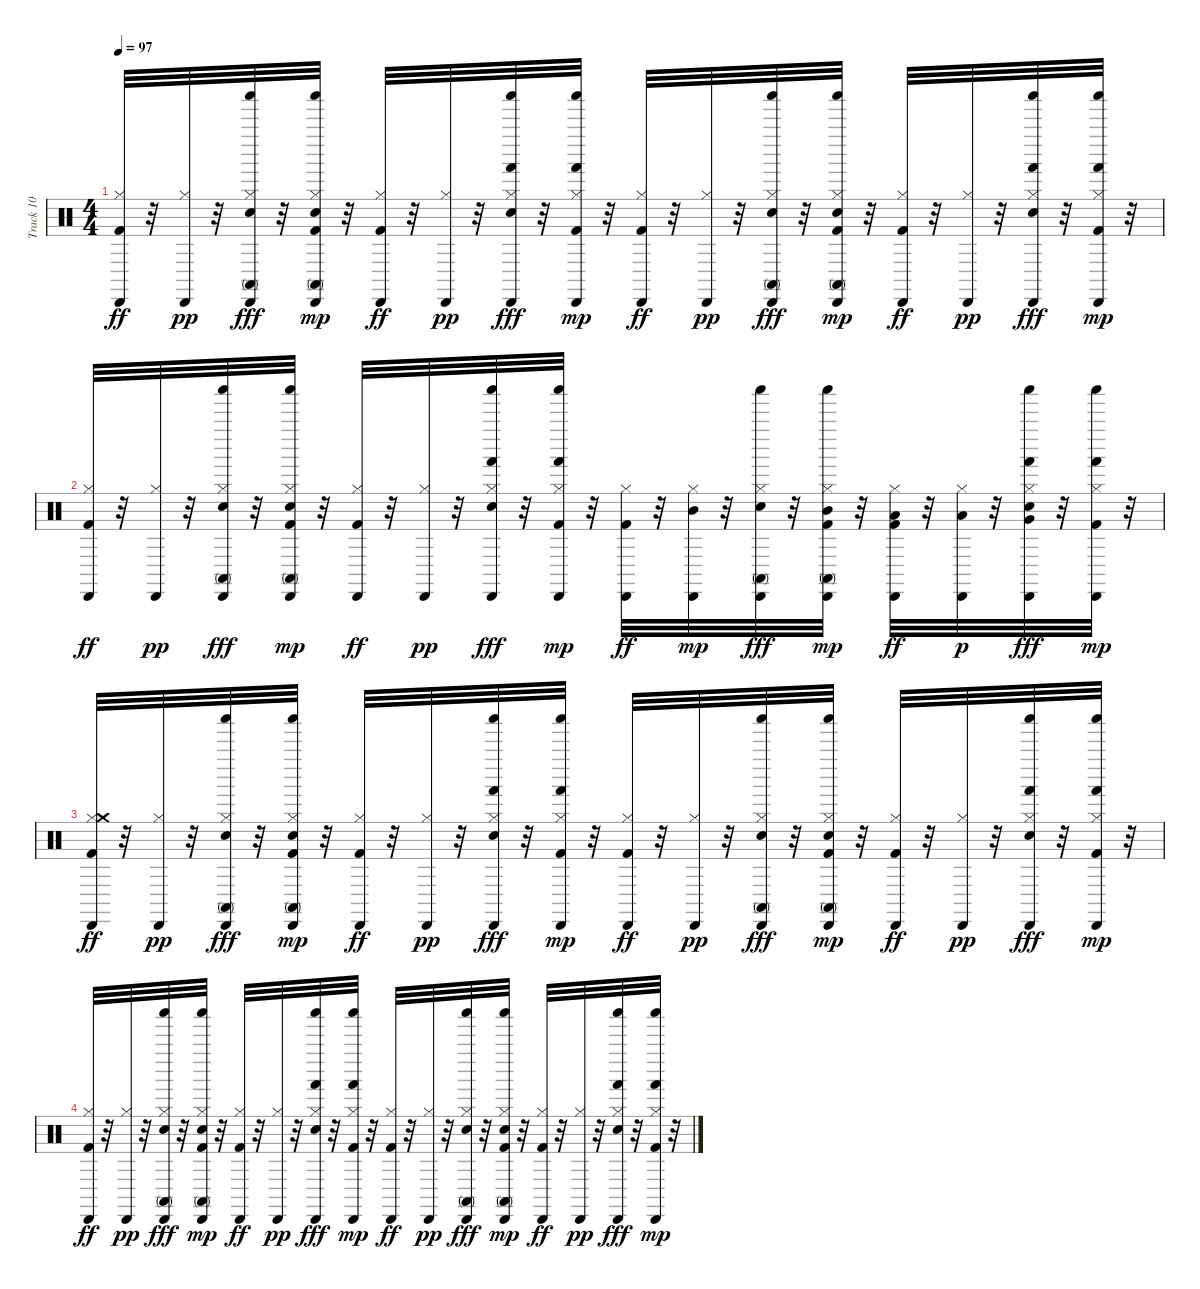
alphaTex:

\track ("Track 10" "Track 10") {instrument percussion}
\staff {score}
\articulation defaults
\ts (4 4)
\tempo 97
\clef neutral
\ks c
("Hi-Hat (closed)" "Cabasa (hit)" "Kick (hit) 2").32{dy ff} r.32 ("Hi-Hat (closed)" "Cabasa (hit)").32{dy pp} r.32 ("Hi-Hat (closed)" "Shaker (hit)" "Conga high (mute)" "Cabasa (hit)" "Snare (hit) 2").32{dy fff} r.32 ("Hi-Hat (closed)" "Shaker (hit)" "Conga high (mute)" "Cabasa (hit)" "Kick (hit) 2" "Snare (hit) 2").32{dy mp} r.32 ("Hi-Hat (closed)" "Cabasa (hit)" "Kick (hit) 2").32{dy ff} r.32 ("Hi-Hat (closed)" "Cabasa (hit)").32{dy pp} r.32 ("Hi-Hat (closed)" "Shaker (hit)" "Hand (hit)" "Cabasa (hit)" "Snare (hit) 2").32{dy fff} r.32 ("Hi-Hat (closed)" "Shaker (hit)" "Hand (hit)" "Cabasa (hit)" "Kick (hit) 2").32{dy mp} r.32 ("Hi-Hat (closed)" "Cabasa (hit)" "Kick (hit) 2").32{dy ff} r.32 ("Hi-Hat (closed)" "Cabasa (hit)").32{dy pp} r.32 ("Hi-Hat (closed)" "Shaker (hit)" "Conga high (mute)" "Cabasa (hit)" "Snare (hit) 2").32{dy fff} r.32 ("Hi-Hat (closed)" "Shaker (hit)" "Conga high (mute)" "Cabasa (hit)" "Kick (hit) 2" "Snare (hit) 2").32{dy mp} r.32 ("Hi-Hat (closed)" "Cabasa (hit)" "Kick (hit) 2").32{dy ff} r.32 ("Hi-Hat (closed)" "Cabasa (hit)").32{dy pp} r.32 ("Hi-Hat (closed)" "Shaker (hit)" "Hand (hit)" "Cabasa (hit)" "Snare (hit) 2").32{dy fff} r.32 ("Hi-Hat (closed)" "Shaker (hit)" "Hand (hit)" "Cabasa (hit)" "Kick (hit) 2").32{dy mp} r.32 |
("Hi-Hat (closed)" "Cabasa (hit)" "Kick (hit) 2").32{dy ff} r.32 ("Hi-Hat (closed)" "Cabasa (hit)").32{dy pp} r.32 ("Hi-Hat (closed)" "Shaker (hit)" "Conga high (mute)" "Cabasa (hit)" "Snare (hit) 2").32{dy fff} r.32 ("Hi-Hat (closed)" "Shaker (hit)" "Conga high (mute)" "Cabasa (hit)" "Kick (hit) 2" "Snare (hit) 2").32{dy mp} r.32 ("Hi-Hat (closed)" "Cabasa (hit)" "Kick (hit) 2").32{dy ff} r.32 ("Hi-Hat (closed)" "Cabasa (hit)").32{dy pp} r.32 ("Hi-Hat (closed)" "Shaker (hit)" "Hand (hit)" "Cabasa (hit)" "Snare (hit) 2").32{dy fff} r.32 ("Hi-Hat (closed)" "Shaker (hit)" "Hand (hit)" "Cabasa (hit)" "Kick (hit) 2").32{dy mp} r.32 ("Hi-Hat (closed)" "Cabasa (hit)" "Kick (hit) 2").32{dy ff} r.32 ("Hi-Hat (closed)" "Cabasa (hit)" "Mid Tom (hit)").32{dy mp} r.32 ("Hi-Hat (closed)" "Shaker (hit)" "Conga high (mute)" "Cabasa (hit)" "Snare (hit) 2").32{dy fff} r.32 ("Hi-Hat (closed)" "Shaker (hit)" "Conga high (mute)" "Cabasa (hit)" "Mid Tom (hit)" "Kick (hit) 2").32{dy mp} r.32 ("Hi-Hat (closed)" "Cabasa (hit)" "Low Tom (hit)" "Kick (hit) 2").32{dy ff} r.32 ("Hi-Hat (closed)" "Cabasa (hit)" "Low Tom (hit)").32{dy p} r.32 ("Hi-Hat (closed)" "Shaker (hit)" "Hand (hit)" "Cabasa (hit)" "Very Low Tom (hit)" "Snare (hit) 2").32{dy fff} r.32 ("Hi-Hat (closed)" "Shaker (hit)" "Hand (hit)" "Cabasa (hit)" "Kick (hit) 2").32{dy mp} r.32 |
("Hi-Hat (closed)" "Cabasa (hit)" "Crash medium (hit)" "Kick (hit) 2").32{dy ff} r.32 ("Hi-Hat (closed)" "Cabasa (hit)").32{dy pp} r.32 ("Hi-Hat (closed)" "Shaker (hit)" "Conga high (mute)" "Cabasa (hit)" "Snare (hit) 2").32{dy fff} r.32 ("Hi-Hat (closed)" "Shaker (hit)" "Conga high (mute)" "Cabasa (hit)" "Kick (hit) 2" "Snare (hit) 2").32{dy mp} r.32 ("Hi-Hat (closed)" "Cabasa (hit)" "Kick (hit) 2").32{dy ff} r.32 ("Hi-Hat (closed)" "Cabasa (hit)").32{dy pp} r.32 ("Hi-Hat (closed)" "Shaker (hit)" "Hand (hit)" "Cabasa (hit)" "Snare (hit) 2").32{dy fff} r.32 ("Hi-Hat (closed)" "Shaker (hit)" "Hand (hit)" "Cabasa (hit)" "Kick (hit) 2").32{dy mp} r.32 ("Hi-Hat (closed)" "Cabasa (hit)" "Kick (hit) 2").32{dy ff} r.32 ("Hi-Hat (closed)" "Cabasa (hit)").32{dy pp} r.32 ("Hi-Hat (closed)" "Shaker (hit)" "Conga high (mute)" "Cabasa (hit)" "Snare (hit) 2").32{dy fff} r.32 ("Hi-Hat (closed)" "Shaker (hit)" "Conga high (mute)" "Cabasa (hit)" "Snare (hit) 2" "Kick (hit) 2").32{dy mp} r.32 ("Hi-Hat (closed)" "Cabasa (hit)" "Kick (hit) 2").32{dy ff} r.32 ("Hi-Hat (closed)" "Cabasa (hit)").32{dy pp} r.32 ("Hi-Hat (closed)" "Shaker (hit)" "Hand (hit)" "Cabasa (hit)" "Snare (hit) 2").32{dy fff} r.32 ("Hi-Hat (closed)" "Shaker (hit)" "Hand (hit)" "Cabasa (hit)" "Kick (hit) 2").32{dy mp} r.32 |
("Hi-Hat (closed)" "Cabasa (hit)" "Kick (hit) 2").32{dy ff} r.32 ("Hi-Hat (closed)" "Cabasa (hit)").32{dy pp} r.32 ("Hi-Hat (closed)" "Shaker (hit)" "Conga high (mute)" "Cabasa (hit)" "Snare (hit) 2").32{dy fff} r.32 ("Hi-Hat (closed)" "Shaker (hit)" "Conga high (mute)" "Cabasa (hit)" "Snare (hit) 2" "Kick (hit) 2").32{dy mp} r.32 ("Hi-Hat (closed)" "Cabasa (hit)" "Kick (hit) 2").32{dy ff} r.32 ("Hi-Hat (closed)" "Cabasa (hit)").32{dy pp} r.32 ("Hi-Hat (closed)" "Shaker (hit)" "Hand (hit)" "Cabasa (hit)" "Snare (hit) 2").32{dy fff} r.32 ("Hi-Hat (closed)" "Shaker (hit)" "Hand (hit)" "Cabasa (hit)" "Kick (hit) 2").32{dy mp} r.32 ("Hi-Hat (closed)" "Cabasa (hit)" "Kick (hit) 2").32{dy ff} r.32 ("Hi-Hat (closed)" "Cabasa (hit)").32{dy pp} r.32 ("Hi-Hat (closed)" "Shaker (hit)" "Conga high (mute)" "Cabasa (hit)" "Snare (hit) 2").32{dy fff} r.32 ("Hi-Hat (closed)" "Shaker (hit)" "Conga high (mute)" "Cabasa (hit)" "Kick (hit) 2" "Snare (hit) 2").32{dy mp} r.32 ("Hi-Hat (closed)" "Cabasa (hit)" "Kick (hit) 2").32{dy ff} r.32 ("Hi-Hat (closed)" "Cabasa (hit)").32{dy pp} r.32 ("Hi-Hat (closed)" "Shaker (hit)" "Hand (hit)" "Cabasa (hit)" "Snare (hit) 2").32{dy fff} r.32 ("Hi-Hat (closed)" "Shaker (hit)" "Hand (hit)" "Cabasa (hit)" "Kick (hit) 2").32{dy mp} r.32
